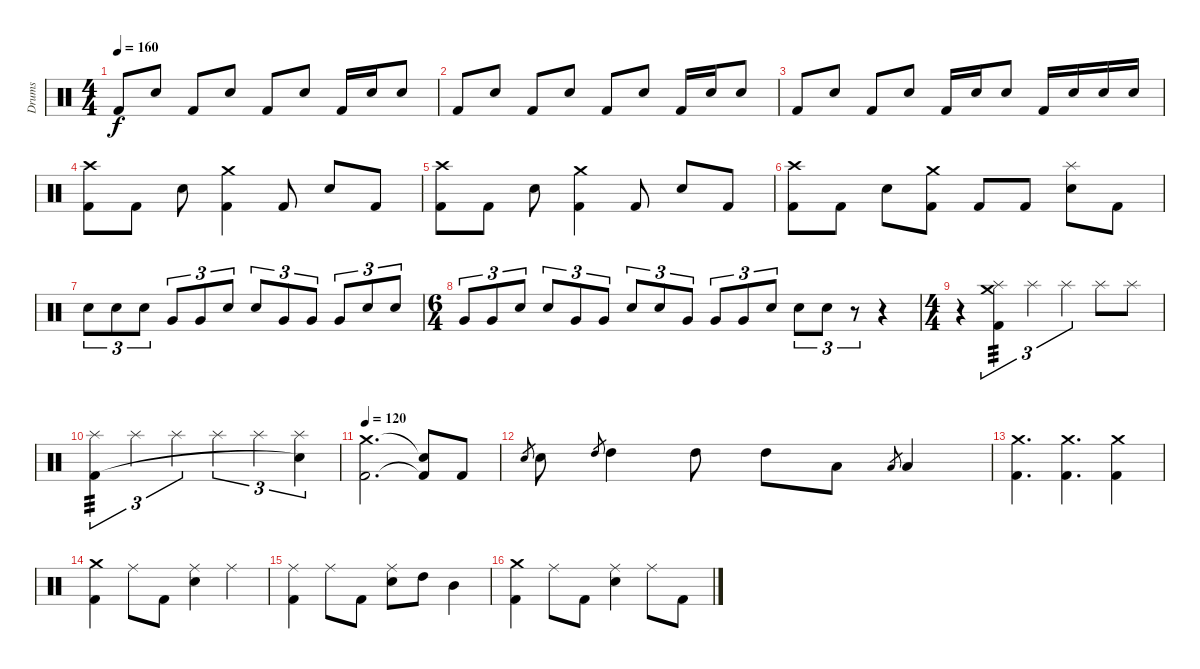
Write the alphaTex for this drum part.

\track ("Drums" "Drums") {instrument percussion}
\staff {score}
\articulation defaults
\ts (4 4)
\tempo 160
\clef neutral
\ks c "Kick (hit) 2".8{dy f} "Snare (hit) 2".8 "Kick (hit) 2".8 "Snare (hit) 2".8 "Kick (hit) 2".8 "Snare (hit) 2".8 "Kick (hit) 2".16 "Snare (hit) 2".16 "Snare (hit) 2".8
|
"Kick (hit) 2".8 "Snare (hit) 2".8 "Kick (hit) 2".8 "Snare (hit) 2".8 "Kick (hit) 2".8 "Snare (hit) 2".8 "Kick (hit) 2".16 "Snare (hit) 2".16 "Snare (hit) 2".8 |
"Kick (hit) 2".8 "Snare (hit) 2".8 "Kick (hit) 2".8 "Snare (hit) 2".8 "Kick (hit) 2".16 "Snare (hit) 2".16 "Snare (hit) 2".8 "Kick (hit) 2".16 "Snare (hit) 2".16 "Snare (hit) 2".16 "Snare (hit) 2".16 |
("Crash high (hit)" "Kick (hit) 2").8 "Kick (hit) 2".8 "Snare (hit) 2".8 ("Crash medium (hit)" "Kick (hit) 2").4 "Kick (hit) 2".8 "Snare (hit) 2".8 "Kick (hit) 2".8 |
("Crash high (hit)" "Kick (hit) 2").8 "Kick (hit) 2".8 "Snare (hit) 2".8 ("Crash medium (hit)" "Kick (hit) 2").4 "Kick (hit) 2".8 "Snare (hit) 2".8 "Kick (hit) 2".8 |
("Crash high (hit)" "Kick (hit) 2").8 "Kick (hit) 2".8 "Snare (hit) 2".8 ("Crash medium (hit)" "Kick (hit) 2").8 "Kick (hit) 2".8 "Kick (hit) 2".8 ("Splash (hit)" "Snare (hit) 2").8 "Kick (hit) 2".8 |
"Snare (hit) 2".8{tu (3 2)} "Snare (hit) 2".8{tu (3 2)} "Snare (hit) 2".8{tu (3 2)} "Very Low Tom (hit)".8{tu (3 2)} "Very Low Tom (hit)".8{tu (3 2)} "Snare (hit) 2".8{tu (3 2)} "Snare (hit) 2".8{tu (3 2)} "Very Low Tom (hit)".8{tu (3 2)} "Very Low Tom (hit)".8{tu (3 2)} "Very Low Tom (hit)".8{tu (3 2)} "Snare (hit) 2".8{tu (3 2)} "Snare (hit) 2".8{tu (3 2)} |
\ts (6 4)
"Very Low Tom (hit)".8{tu (3 2)} "Very Low Tom (hit)".8{tu (3 2)} "Snare (hit) 2".8{tu (3 2)} "Snare (hit) 2".8{tu (3 2)} "Very Low Tom (hit)".8{tu (3 2)} "Very Low Tom (hit)".8{tu (3 2)} "Snare (hit) 2".8{tu (3 2)} "Snare (hit) 2".8{tu (3 2)} "Very Low Tom (hit)".8{tu (3 2)} "Very Low Tom (hit)".8{tu (3 2)} "Very Low Tom (hit)".8{tu (3 2)} "Snare (hit) 2".8{tu (3 2)} "Snare (hit) 2".8{tu (3 2)} "Snare (hit) 2".8{tu (3 2)} r.8{tu (3 2)} r.4 |
\ts (4 4)
r.4 ("Splash (hit)" "Crash medium (hit)" "Kick (hit) 2").4{tu (3 2) tp 3} "Splash (hit)".4{tu (3 2)} "Splash (hit)".4{tu (3 2)} "Splash (hit)".8 "Splash (hit)".8 |
("Splash (hit)" "Kick (hit) 2").4{tu (3 2) tp 3} "Splash (hit)".4{tu (3 2)} "Splash (hit)".4{tu (3 2)} "Splash (hit)".4{tu (3 2)} "Splash (hit)".4{tu (3 2)} ("Splash (hit)" "Snare (hit)"{t}).4{tu (3 2)} |
\tempo 120
("Crash medium (hit)" "Kick (hit) 2").2{d} ("Snare (hit)"{t} "Kick (hit) 2"{t}).8 "Kick (hit) 2".8 |
"Snare (hit) 2".8{gr} "Snare (hit) 2".8 "High Tom (hit)".8{gr} "High Tom (hit)".4 "High Tom (hit)".8 "High Tom (hit)".8 "Low Tom (hit)".8 "Low Tom (hit)".8{gr} "Low Tom (hit)".4 |
("Crash medium (hit)" "Kick (hit) 2").4{d} ("Crash medium (hit)" "Kick (hit) 2").4{d} ("Crash medium (hit)" "Kick (hit) 2").4 |
("Crash medium (hit)" "Kick (hit) 2").4 "Ride (middle)".8 "Kick (hit) 2".8 ("Ride (middle)" "Snare (hit) 2").4 "Ride (middle)".4 |
("Ride (middle)" "Kick (hit) 2").4 "Ride (middle)".8 "Kick (hit) 2".8 ("Ride (middle)" "Snare (hit) 2").8 "High Tom (hit)".8 "Mid Tom (hit)".4 |
("Crash medium (hit)" "Kick (hit) 2").4 "Ride (middle)".8 "Kick (hit) 2".8 ("Ride (middle)" "Snare (hit) 2").4 "Ride (middle)".8 "Kick (hit) 2".8
